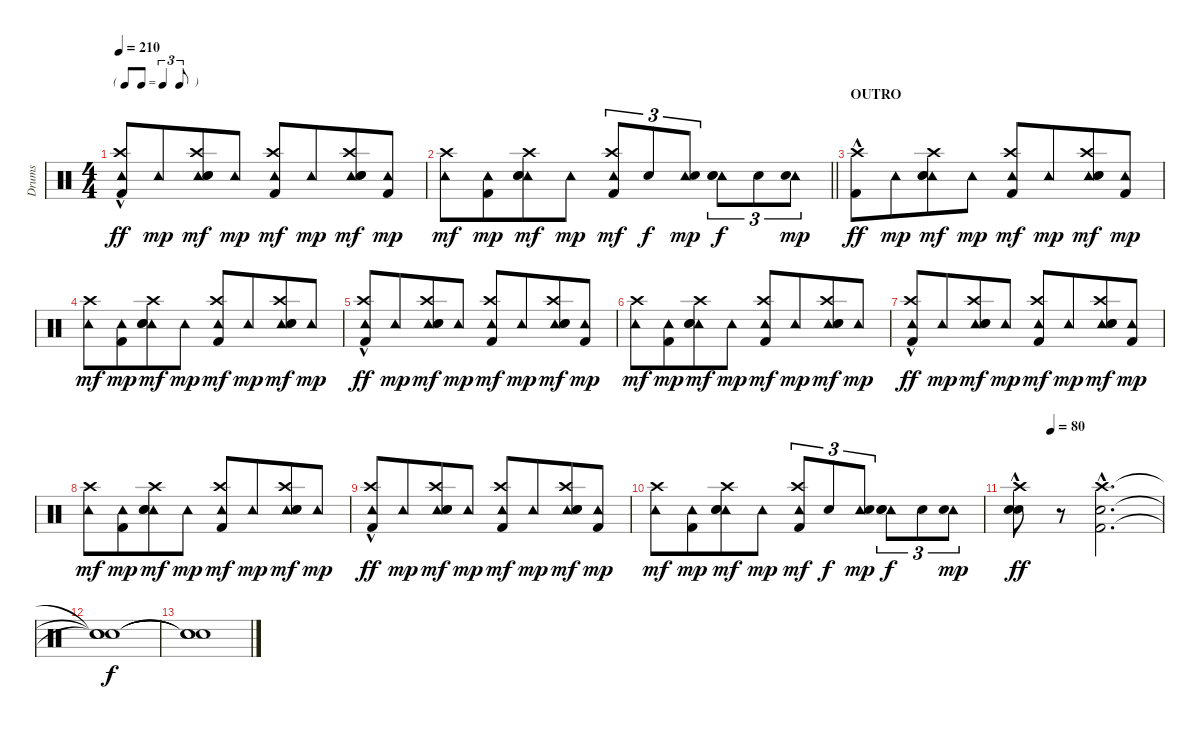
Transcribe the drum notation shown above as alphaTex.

\track ("Drums" "Drums") {instrument percussion}
\staff {score}
\articulation defaults
\ts (4 4)
\tf triplet8th
\tempo 210
\clef neutral
\ks c
("Tambourine (hit)" "Crash high (hit)"{hac} "Kick (hit) 2").8{dy ff} "Tambourine (hit)".8{dy mp beam merge} ("Tambourine (hit)" "Crash high (hit)" "Hand Clap (hit)" "Electric Snare (hit)").8{dy mf} "Tambourine (hit)".8{dy mp} ("Tambourine (hit)" "Crash high (hit)" "Kick (hit) 2").8{dy mf} "Tambourine (hit)".8{dy mp beam merge} ("Tambourine (hit)" "Crash high (hit)" "Hand Clap (hit)" "Electric Snare (hit)").8{dy mf} ("Tambourine (hit)" "Kick (hit) 2").8{dy mp} |
\barLineRight lightlight
("Tambourine (hit)" "Crash high (hit)").8{dy mf} ("Tambourine (hit)" "Kick (hit) 2").8{dy mp beam merge} ("Tambourine (hit)" "Crash high (hit)" "Hand Clap (hit)" "Electric Snare (hit)").8{dy mf} "Tambourine (hit)".8{dy mp} ("Tambourine (hit)" "Crash high (hit)" "Kick (hit) 2").8{tu (3 2) dy mf} "Electric Snare (hit)".8{tu (3 2) dy f} ("Tambourine (hit)" "Electric Snare (hit)").8{tu (3 2) dy mp} ("Tambourine (hit)" "Hand Clap (hit)" "Electric Snare (hit)").8{tu (3 2) dy f} "Electric Snare (hit)".8{tu (3 2)} ("Tambourine (hit)" "Electric Snare (hit)").8{tu (3 2) dy mp} |
\section ("" "OUTRO")
("Crash high (hit)"{hac} "Kick (hit) 2").8{dy ff} "Tambourine (hit)".8{dy mp beam merge} ("Tambourine (hit)" "Crash high (hit)" "Hand Clap (hit)" "Electric Snare (hit)").8{dy mf} "Tambourine (hit)".8{dy mp} ("Tambourine (hit)" "Crash high (hit)" "Kick (hit) 2").8{dy mf} "Tambourine (hit)".8{dy mp beam merge} ("Tambourine (hit)" "Crash high (hit)" "Hand Clap (hit)" "Electric Snare (hit)").8{dy mf} ("Tambourine (hit)" "Kick (hit) 2").8{dy mp} |
("Tambourine (hit)" "Crash high (hit)").8{dy mf} ("Tambourine (hit)" "Kick (hit) 2").8{dy mp beam merge} ("Tambourine (hit)" "Crash high (hit)" "Hand Clap (hit)" "Electric Snare (hit)").8{dy mf} "Tambourine (hit)".8{dy mp} ("Tambourine (hit)" "Crash high (hit)" "Kick (hit) 2").8{dy mf} "Tambourine (hit)".8{dy mp beam merge} ("Tambourine (hit)" "Crash high (hit)" "Hand Clap (hit)" "Electric Snare (hit)").8{dy mf} "Tambourine (hit)".8{dy mp} |
("Tambourine (hit)" "Crash high (hit)"{hac} "Kick (hit) 2").8{dy ff} "Tambourine (hit)".8{dy mp beam merge} ("Tambourine (hit)" "Crash high (hit)" "Hand Clap (hit)" "Electric Snare (hit)").8{dy mf} "Tambourine (hit)".8{dy mp} ("Tambourine (hit)" "Crash high (hit)" "Kick (hit) 2").8{dy mf} "Tambourine (hit)".8{dy mp beam merge} ("Tambourine (hit)" "Crash high (hit)" "Hand Clap (hit)" "Electric Snare (hit)").8{dy mf} ("Tambourine (hit)" "Kick (hit) 2").8{dy mp} |
("Tambourine (hit)" "Crash high (hit)").8{dy mf} ("Tambourine (hit)" "Kick (hit) 2").8{dy mp beam merge} ("Tambourine (hit)" "Crash high (hit)" "Hand Clap (hit)" "Electric Snare (hit)").8{dy mf} "Tambourine (hit)".8{dy mp} ("Tambourine (hit)" "Crash high (hit)" "Kick (hit) 2").8{dy mf} "Tambourine (hit)".8{dy mp beam merge} ("Tambourine (hit)" "Crash high (hit)" "Hand Clap (hit)" "Electric Snare (hit)").8{dy mf} "Tambourine (hit)".8{dy mp} |
("Tambourine (hit)" "Crash high (hit)"{hac} "Kick (hit) 2").8{dy ff} "Tambourine (hit)".8{dy mp beam merge} ("Tambourine (hit)" "Crash high (hit)" "Hand Clap (hit)" "Electric Snare (hit)").8{dy mf} "Tambourine (hit)".8{dy mp} ("Tambourine (hit)" "Crash high (hit)" "Kick (hit) 2").8{dy mf} "Tambourine (hit)".8{dy mp beam merge} ("Tambourine (hit)" "Crash high (hit)" "Hand Clap (hit)" "Electric Snare (hit)").8{dy mf} ("Tambourine (hit)" "Kick (hit) 2").8{dy mp} |
("Tambourine (hit)" "Crash high (hit)").8{dy mf} ("Tambourine (hit)" "Kick (hit) 2").8{dy mp beam merge} ("Tambourine (hit)" "Crash high (hit)" "Hand Clap (hit)" "Electric Snare (hit)").8{dy mf} "Tambourine (hit)".8{dy mp} ("Tambourine (hit)" "Crash high (hit)" "Kick (hit) 2").8{dy mf} "Tambourine (hit)".8{dy mp beam merge} ("Tambourine (hit)" "Crash high (hit)" "Hand Clap (hit)" "Electric Snare (hit)").8{dy mf} "Tambourine (hit)".8{dy mp} |
("Tambourine (hit)" "Crash high (hit)"{hac} "Kick (hit) 2").8{dy ff} "Tambourine (hit)".8{dy mp beam merge} ("Tambourine (hit)" "Crash high (hit)" "Hand Clap (hit)" "Electric Snare (hit)").8{dy mf} "Tambourine (hit)".8{dy mp} ("Tambourine (hit)" "Crash high (hit)" "Kick (hit) 2").8{dy mf} "Tambourine (hit)".8{dy mp beam merge} ("Tambourine (hit)" "Crash high (hit)" "Hand Clap (hit)" "Electric Snare (hit)").8{dy mf} ("Tambourine (hit)" "Kick (hit) 2").8{dy mp} |
("Tambourine (hit)" "Crash high (hit)").8{dy mf} ("Tambourine (hit)" "Kick (hit) 2").8{dy mp beam merge} ("Tambourine (hit)" "Crash high (hit)" "Hand Clap (hit)" "Electric Snare (hit)").8{dy mf} "Tambourine (hit)".8{dy mp} ("Tambourine (hit)" "Crash high (hit)" "Kick (hit) 2").8{tu (3 2) dy mf} "Electric Snare (hit)".8{tu (3 2) dy f} ("Tambourine (hit)" "Electric Snare (hit)").8{tu (3 2) dy mp} ("Tambourine (hit)" "Hand Clap (hit)" "Electric Snare (hit)").8{tu (3 2) dy f} "Electric Snare (hit)".8{tu (3 2)} ("Tambourine (hit)" "Electric Snare (hit)").8{tu (3 2) dy mp} |
\tempo (80 0.25)
("Crash high (hit)"{hac} "Hand Clap (hit)" "Electric Snare (hit)").8{dy ff} r.8 ("Crash high (hit)"{hac} "Electric Snare (hit)" "Kick (hit) 2").2{d} |
("Snare (hit)"{t} "Snare (hit)"{t} "Snare (hit)"{t}).1{dy f} |
("Snare (hit)"{t} "Snare (hit)"{t} "Snare (hit)"{t}).1
